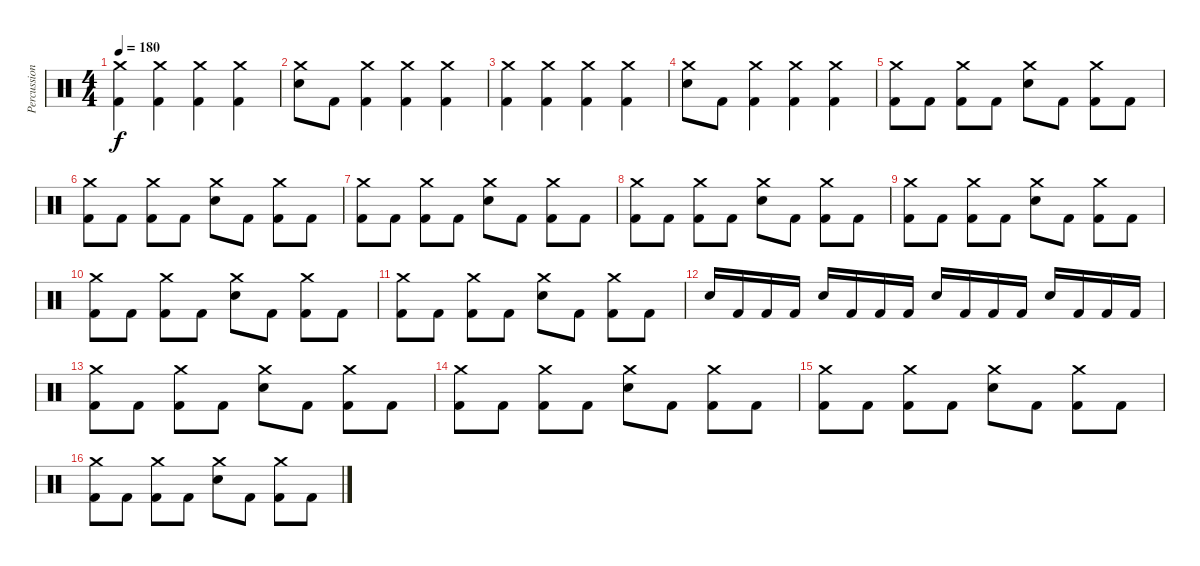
\track ("Percussion" "Percussion") {instrument percussion}
\staff {score}
\articulation defaults
\ts (4 4)
\tempo 180
\clef neutral
\ks c
("Kick (hit) 2" "Crash medium (hit)").4{dy f} ("Kick (hit) 2" "Crash medium (hit)").4 ("Kick (hit) 2" "Crash medium (hit)").4 ("Kick (hit) 2" "Crash medium (hit)").4 |
("Electric Snare (hit)" "Crash medium (hit)").8 "Kick (hit) 2".8 ("Kick (hit) 2" "Crash medium (hit)").4 ("Kick (hit) 2" "Crash medium (hit)").4 ("Kick (hit) 2" "Crash medium (hit)").4 |
("Kick (hit) 2" "Crash medium (hit)").4 ("Kick (hit) 2" "Crash medium (hit)").4 ("Kick (hit) 2" "Crash medium (hit)").4 ("Kick (hit) 2" "Crash medium (hit)").4 |
("Electric Snare (hit)" "Crash medium (hit)").8 "Kick (hit) 2".8 ("Kick (hit) 2" "Crash medium (hit)").4 ("Kick (hit) 2" "Crash medium (hit)").4 ("Kick (hit) 2" "Crash medium (hit)").4 |
("Kick (hit) 2" "Crash medium (hit)").8 "Kick (hit) 2".8 ("Kick (hit) 2" "Crash medium (hit)").8 "Kick (hit) 2".8 ("Electric Snare (hit)" "Crash medium (hit)").8 "Kick (hit) 2".8 ("Kick (hit) 2" "Crash medium (hit)").8 "Kick (hit) 2".8 |
("Kick (hit) 2" "Crash medium (hit)").8 "Kick (hit) 2".8 ("Kick (hit) 2" "Crash medium (hit)").8 "Kick (hit) 2".8 ("Electric Snare (hit)" "Crash medium (hit)").8 "Kick (hit) 2".8 ("Kick (hit) 2" "Crash medium (hit)").8 "Kick (hit) 2".8 |
("Kick (hit) 2" "Crash medium (hit)").8 "Kick (hit) 2".8 ("Kick (hit) 2" "Crash medium (hit)").8 "Kick (hit) 2".8 ("Electric Snare (hit)" "Crash medium (hit)").8 "Kick (hit) 2".8 ("Kick (hit) 2" "Crash medium (hit)").8 "Kick (hit) 2".8 |
("Kick (hit) 2" "Crash medium (hit)").8 "Kick (hit) 2".8 ("Kick (hit) 2" "Crash medium (hit)").8 "Kick (hit) 2".8 ("Electric Snare (hit)" "Crash medium (hit)").8 "Kick (hit) 2".8 ("Kick (hit) 2" "Crash medium (hit)").8 "Kick (hit) 2".8 |
("Kick (hit) 2" "Crash medium (hit)").8 "Kick (hit) 2".8 ("Kick (hit) 2" "Crash medium (hit)").8 "Kick (hit) 2".8 ("Electric Snare (hit)" "Crash medium (hit)").8 "Kick (hit) 2".8 ("Kick (hit) 2" "Crash medium (hit)").8 "Kick (hit) 2".8 |
("Kick (hit) 2" "Crash medium (hit)").8 "Kick (hit) 2".8 ("Kick (hit) 2" "Crash medium (hit)").8 "Kick (hit) 2".8 ("Electric Snare (hit)" "Crash medium (hit)").8 "Kick (hit) 2".8 ("Kick (hit) 2" "Crash medium (hit)").8 "Kick (hit) 2".8 |
("Kick (hit) 2" "Crash medium (hit)").8 "Kick (hit) 2".8 ("Kick (hit) 2" "Crash medium (hit)").8 "Kick (hit) 2".8 ("Electric Snare (hit)" "Crash medium (hit)").8 "Kick (hit) 2".8 ("Kick (hit) 2" "Crash medium (hit)").8 "Kick (hit) 2".8 |
"Electric Snare (hit)".16 "Kick (hit) 2".16 "Kick (hit) 2".16 "Kick (hit) 2".16 "Electric Snare (hit)".16 "Kick (hit) 2".16 "Kick (hit) 2".16 "Kick (hit) 2".16 "Electric Snare (hit)".16 "Kick (hit) 2".16 "Kick (hit) 2".16 "Kick (hit) 2".16 "Electric Snare (hit)".16 "Kick (hit) 2".16 "Kick (hit) 2".16 "Kick (hit) 2".16 |
("Kick (hit) 2" "Crash medium (hit)").8 "Kick (hit) 2".8 ("Kick (hit) 2" "Crash medium (hit)").8 "Kick (hit) 2".8 ("Electric Snare (hit)" "Crash medium (hit)").8 "Kick (hit) 2".8 ("Kick (hit) 2" "Crash medium (hit)").8 "Kick (hit) 2".8 |
("Kick (hit) 2" "Crash medium (hit)").8 "Kick (hit) 2".8 ("Kick (hit) 2" "Crash medium (hit)").8 "Kick (hit) 2".8 ("Electric Snare (hit)" "Crash medium (hit)").8 "Kick (hit) 2".8 ("Kick (hit) 2" "Crash medium (hit)").8 "Kick (hit) 2".8 |
("Kick (hit) 2" "Crash medium (hit)").8 "Kick (hit) 2".8 ("Kick (hit) 2" "Crash medium (hit)").8 "Kick (hit) 2".8 ("Electric Snare (hit)" "Crash medium (hit)").8 "Kick (hit) 2".8 ("Kick (hit) 2" "Crash medium (hit)").8 "Kick (hit) 2".8 |
("Kick (hit) 2" "Crash medium (hit)").8 "Kick (hit) 2".8 ("Kick (hit) 2" "Crash medium (hit)").8 "Kick (hit) 2".8 ("Electric Snare (hit)" "Crash medium (hit)").8 "Kick (hit) 2".8 ("Kick (hit) 2" "Crash medium (hit)").8 "Kick (hit) 2".8
